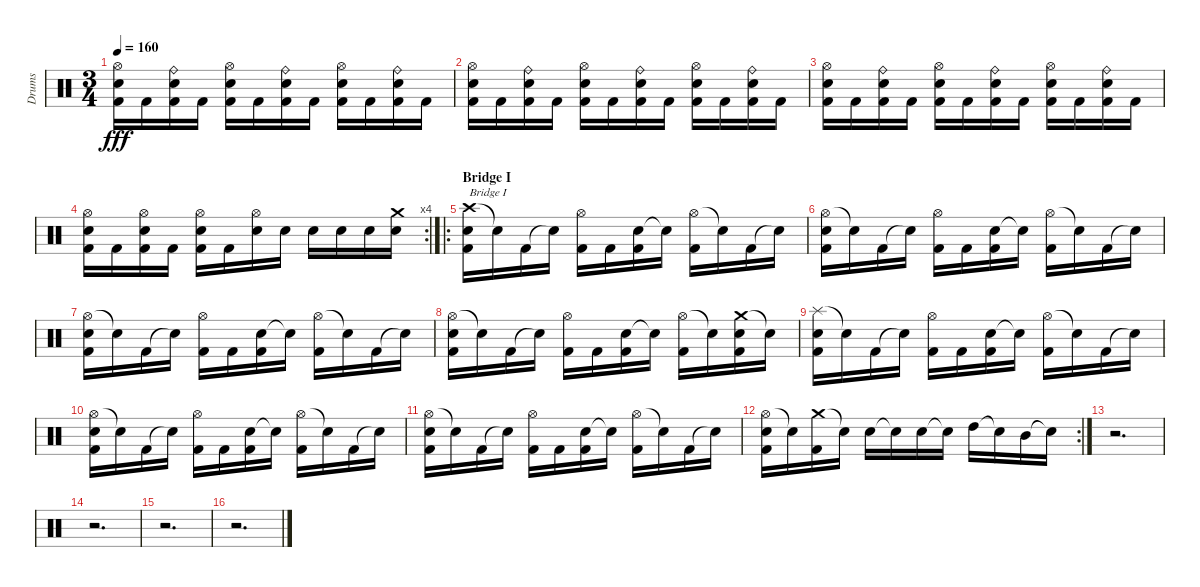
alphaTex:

\track ("Drums" "Drums") {instrument percussion}
\staff {score}
\articulation defaults
\ts (3 4)
\tempo 160
\clef neutral
\ks c
("Hi-Hat (open)" "Electric Snare (hit)" "Kick (hit) 2").16{dy fff} "Kick (hit) 2".16 ("Ride (bell)" "Electric Snare (hit)" "Kick (hit) 2").16 "Kick (hit) 2".16 ("Hi-Hat (open)" "Electric Snare (hit)" "Kick (hit) 2").16 "Kick (hit) 2".16 ("Ride (bell)" "Electric Snare (hit)" "Kick (hit) 2").16 "Kick (hit) 2".16 ("Hi-Hat (open)" "Electric Snare (hit)" "Kick (hit) 2").16 "Kick (hit) 2".16 ("Ride (bell)" "Electric Snare (hit)" "Kick (hit) 2").16 "Kick (hit) 2".16 |
("Hi-Hat (open)" "Electric Snare (hit)" "Kick (hit) 2").16 "Kick (hit) 2".16 ("Ride (bell)" "Electric Snare (hit)" "Kick (hit) 2").16 "Kick (hit) 2".16 ("Hi-Hat (open)" "Electric Snare (hit)" "Kick (hit) 2").16 "Kick (hit) 2".16 ("Ride (bell)" "Electric Snare (hit)" "Kick (hit) 2").16 "Kick (hit) 2".16 ("Hi-Hat (open)" "Electric Snare (hit)" "Kick (hit) 2").16 "Kick (hit) 2".16 ("Ride (bell)" "Electric Snare (hit)" "Kick (hit) 2").16 "Kick (hit) 2".16 |
("Hi-Hat (open)" "Electric Snare (hit)" "Kick (hit) 2").16 "Kick (hit) 2".16 ("Ride (bell)" "Electric Snare (hit)" "Kick (hit) 2").16 "Kick (hit) 2".16 ("Hi-Hat (open)" "Electric Snare (hit)" "Kick (hit) 2").16 "Kick (hit) 2".16 ("Ride (bell)" "Electric Snare (hit)" "Kick (hit) 2").16 "Kick (hit) 2".16 ("Hi-Hat (open)" "Electric Snare (hit)" "Kick (hit) 2").16 "Kick (hit) 2".16 ("Ride (bell)" "Electric Snare (hit)" "Kick (hit) 2").16 "Kick (hit) 2".16 |
\rc 4
("Hi-Hat (open)" "Electric Snare (hit)" "Kick (hit) 2").16 "Kick (hit) 2".16 ("Hi-Hat (open)" "Electric Snare (hit)" "Kick (hit) 2").16 "Kick (hit) 2".16 ("Hi-Hat (open)" "Electric Snare (hit)" "Kick (hit) 2").16 "Kick (hit) 2".16 ("Hi-Hat (open)" "Electric Snare (hit)").16 "Electric Snare (hit)".16 "Electric Snare (hit)".16 "Electric Snare (hit)".16 "Electric Snare (hit)".16 ("Crash medium (hit)" "Electric Snare (hit)").16 |
\ro
\section ("" "Bridge I")
("Crash high (hit)" "Electric Snare (hit)" "Kick (hit) 2").16{txt "Bridge I"} "Snare (hit)"{t}.16 "Kick (hit) 2".16 "Snare (hit)"{t}.16 ("Hi-Hat (open)" "Kick (hit) 2").16 "Kick (hit) 2".16 ("Electric Snare (hit)" "Kick (hit) 2").16 "Snare (hit)"{t}.16 ("Hi-Hat (open)" "Kick (hit) 2").16 "Snare (hit)"{t}.16 "Kick (hit) 2".16 "Snare (hit)"{t}.16 |
("Hi-Hat (open)" "Electric Snare (hit)" "Kick (hit) 2").16 "Snare (hit)"{t}.16 "Kick (hit) 2".16 "Snare (hit)"{t}.16 ("Hi-Hat (open)" "Kick (hit) 2").16 "Kick (hit) 2".16 ("Electric Snare (hit)" "Kick (hit) 2").16 "Snare (hit)"{t}.16 ("Hi-Hat (open)" "Kick (hit) 2").16 "Snare (hit)"{t}.16 "Kick (hit) 2".16 "Snare (hit)"{t}.16 |
("Hi-Hat (open)" "Electric Snare (hit)" "Kick (hit) 2").16 "Snare (hit)"{t}.16 "Kick (hit) 2".16 "Snare (hit)"{t}.16 ("Hi-Hat (open)" "Kick (hit) 2").16 "Kick (hit) 2".16 ("Electric Snare (hit)" "Kick (hit) 2").16 "Snare (hit)"{t}.16 ("Hi-Hat (open)" "Kick (hit) 2").16 "Snare (hit)"{t}.16 "Kick (hit) 2".16 "Snare (hit)"{t}.16 |
("Hi-Hat (open)" "Electric Snare (hit)" "Kick (hit) 2").16 "Snare (hit)"{t}.16 "Kick (hit) 2".16 "Snare (hit)"{t}.16 ("Hi-Hat (open)" "Kick (hit) 2").16 "Kick (hit) 2".16 ("Electric Snare (hit)" "Kick (hit) 2").16 "Snare (hit)"{t}.16 ("Hi-Hat (open)" "Kick (hit) 2").16 "Snare (hit)"{t}.16 ("Crash medium (hit)" "Electric Snare (hit)" "Kick (hit) 2").16 "Snare (hit)"{t}.16 |
("Splash (hit)" "Electric Snare (hit)" "Kick (hit) 2").16 "Snare (hit)"{t}.16 "Kick (hit) 2".16 "Snare (hit)"{t}.16 ("Hi-Hat (open)" "Kick (hit) 2").16 "Kick (hit) 2".16 ("Electric Snare (hit)" "Kick (hit) 2").16 "Snare (hit)"{t}.16 ("Hi-Hat (open)" "Kick (hit) 2").16 "Snare (hit)"{t}.16 "Kick (hit) 2".16 "Snare (hit)"{t}.16 |
("Hi-Hat (open)" "Electric Snare (hit)" "Kick (hit) 2").16 "Snare (hit)"{t}.16 "Kick (hit) 2".16 "Snare (hit)"{t}.16 ("Hi-Hat (open)" "Kick (hit) 2").16 "Kick (hit) 2".16 ("Electric Snare (hit)" "Kick (hit) 2").16 "Snare (hit)"{t}.16 ("Hi-Hat (open)" "Kick (hit) 2").16 "Snare (hit)"{t}.16 "Kick (hit) 2".16 "Snare (hit)"{t}.16 |
("Hi-Hat (open)" "Electric Snare (hit)" "Kick (hit) 2").16 "Snare (hit)"{t}.16 "Kick (hit) 2".16 "Snare (hit)"{t}.16 ("Hi-Hat (open)" "Kick (hit) 2").16 "Kick (hit) 2".16 ("Electric Snare (hit)" "Kick (hit) 2").16 "Snare (hit)"{t}.16 ("Hi-Hat (open)" "Kick (hit) 2").16 "Snare (hit)"{t}.16 "Kick (hit) 2".16 "Snare (hit)"{t}.16 |
\rc 2
("Hi-Hat (open)" "Electric Snare (hit)" "Kick (hit) 2").16 "Snare (hit)"{t}.16 ("Crash medium (hit)" "Kick (hit) 2").16 "Snare (hit)"{t}.16 "Electric Snare (hit)".16 "Snare (hit)"{t}.16 "Electric Snare (hit)".16 "Snare (hit)"{t}.16 "High Tom (hit)".16 "Snare (hit)"{t}.16 "Mid Tom (hit)".16 "Snare (hit)"{t}.16 |
r.2{d} |
r.2{d} |
r.2{d} |
r.2{d}
